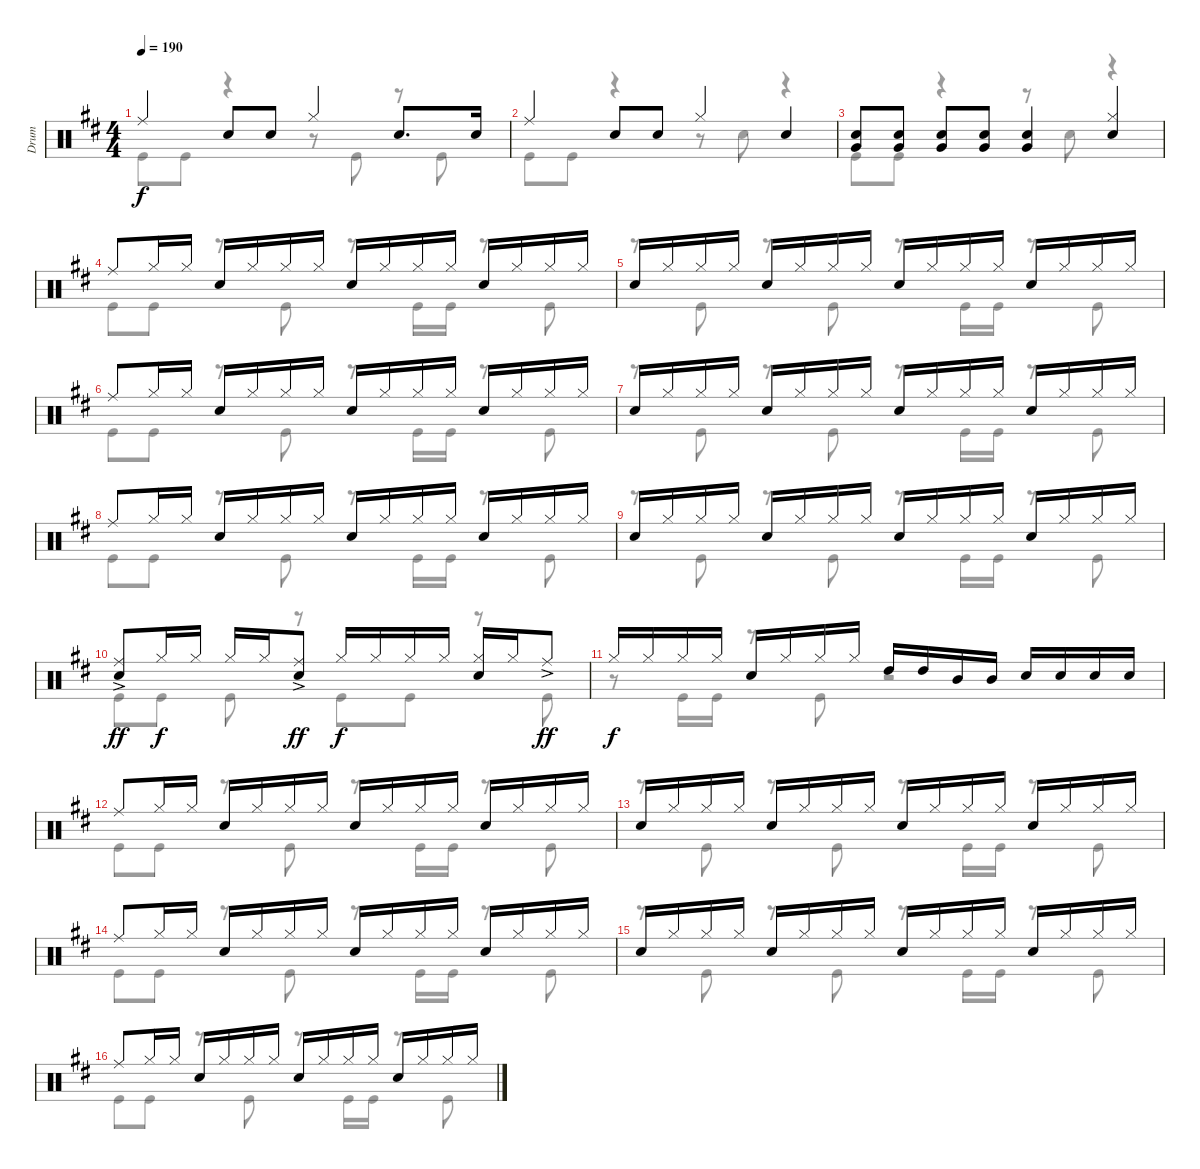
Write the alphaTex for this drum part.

\track ("Drum" "Drum") {instrument percussion}
\staff {score}
\articulation defaults
\voice
\ts (4 4)
\tempo 190
\clef neutral
\ks d "Ride (middle)".4{dy f} "Snare (hit) 2".8 "Snare (hit) 2".8 "Hi-Hat (closed)".4 "Snare (hit) 2".8{d} "Snare (hit) 2".16
|
"Ride (middle)".4 "Snare (hit) 2".8 "Snare (hit) 2".8 "Hi-Hat (closed)".4 "Snare (hit) 2".4 |
("Very Low Tom (hit)" "Snare (hit) 2").8 ("Very Low Tom (hit)" "Snare (hit) 2").8 ("Very Low Tom (hit)" "Snare (hit) 2").8 ("Very Low Tom (hit)" "Snare (hit) 2").8 ("Very Low Tom (hit)" "Snare (hit) 2").4 ("Hi-Hat (closed)" "Snare (hit) 2").4 |
"Ride (middle)".8 "Hi-Hat (closed)".16 "Hi-Hat (closed)".16 "Snare (hit) 2".16 "Hi-Hat (closed)".16 "Hi-Hat (closed)".16 "Hi-Hat (closed)".16 "Snare (hit) 2".16 "Hi-Hat (closed)".16 "Hi-Hat (closed)".16 "Hi-Hat (closed)".16 "Snare (hit) 2".16 "Hi-Hat (closed)".16 "Hi-Hat (closed)".16 "Hi-Hat (closed)".16 |
"Snare (hit) 2".16 "Hi-Hat (closed)".16 "Hi-Hat (closed)".16 "Hi-Hat (closed)".16 "Snare (hit) 2".16 "Hi-Hat (closed)".16 "Hi-Hat (closed)".16 "Hi-Hat (closed)".16 "Snare (hit) 2".16 "Hi-Hat (closed)".16 "Hi-Hat (closed)".16 "Hi-Hat (closed)".16 "Snare (hit) 2".16 "Hi-Hat (closed)".16 "Hi-Hat (closed)".16 "Hi-Hat (closed)".16 |
"Ride (middle)".8 "Hi-Hat (closed)".16 "Hi-Hat (closed)".16 "Snare (hit) 2".16 "Hi-Hat (closed)".16 "Hi-Hat (closed)".16 "Hi-Hat (closed)".16 "Snare (hit) 2".16 "Hi-Hat (closed)".16 "Hi-Hat (closed)".16 "Hi-Hat (closed)".16 "Snare (hit) 2".16 "Hi-Hat (closed)".16 "Hi-Hat (closed)".16 "Hi-Hat (closed)".16 |
"Snare (hit) 2".16 "Hi-Hat (closed)".16 "Hi-Hat (closed)".16 "Hi-Hat (closed)".16 "Snare (hit) 2".16 "Hi-Hat (closed)".16 "Hi-Hat (closed)".16 "Hi-Hat (closed)".16 "Snare (hit) 2".16 "Hi-Hat (closed)".16 "Hi-Hat (closed)".16 "Hi-Hat (closed)".16 "Snare (hit) 2".16 "Hi-Hat (closed)".16 "Hi-Hat (closed)".16 "Hi-Hat (closed)".16 |
"Ride (middle)".8 "Hi-Hat (closed)".16 "Hi-Hat (closed)".16 "Snare (hit) 2".16 "Hi-Hat (closed)".16 "Hi-Hat (closed)".16 "Hi-Hat (closed)".16 "Snare (hit) 2".16 "Hi-Hat (closed)".16 "Hi-Hat (closed)".16 "Hi-Hat (closed)".16 "Snare (hit) 2".16 "Hi-Hat (closed)".16 "Hi-Hat (closed)".16 "Hi-Hat (closed)".16 |
"Snare (hit) 2".16 "Hi-Hat (closed)".16 "Hi-Hat (closed)".16 "Hi-Hat (closed)".16 "Snare (hit) 2".16 "Hi-Hat (closed)".16 "Hi-Hat (closed)".16 "Hi-Hat (closed)".16 "Snare (hit) 2".16 "Hi-Hat (closed)".16 "Hi-Hat (closed)".16 "Hi-Hat (closed)".16 "Snare (hit) 2".16 "Hi-Hat (closed)".16 "Hi-Hat (closed)".16 "Hi-Hat (closed)".16 |
("Ride (middle)"{ac} "Snare (hit) 2").8{dy ff} "Hi-Hat (closed)".16{dy f} "Hi-Hat (closed)".16 "Hi-Hat (closed)".16 "Hi-Hat (closed)".16 ("Ride (middle)"{ac} "Snare (hit) 2").8{dy ff} "Hi-Hat (closed)".16{dy f} "Hi-Hat (closed)".16 "Hi-Hat (closed)".16 "Hi-Hat (closed)".16 ("Hi-Hat (closed)" "Snare (hit) 2").16 "Hi-Hat (closed)".16 "Ride (middle)"{ac}.8{dy ff} |
"Hi-Hat (closed)".16{dy f} "Hi-Hat (closed)".16 "Hi-Hat (closed)".16 "Hi-Hat (closed)".16 "Snare (hit) 2".16 "Hi-Hat (closed)".16 "Hi-Hat (closed)".16 "Hi-Hat (closed)".16 "High Tom (hit)".16 "High Tom (hit)".16 "Mid Tom (hit)".16 "Mid Tom (hit)".16 "Snare (hit) 2".16 "Snare (hit) 2".16 "Snare (hit) 2".16 "Snare (hit) 2".16 |
"Ride (middle)".8 "Hi-Hat (closed)".16 "Hi-Hat (closed)".16 "Snare (hit) 2".16 "Hi-Hat (closed)".16 "Hi-Hat (closed)".16 "Hi-Hat (closed)".16 "Snare (hit) 2".16 "Hi-Hat (closed)".16 "Hi-Hat (closed)".16 "Hi-Hat (closed)".16 "Snare (hit) 2".16 "Hi-Hat (closed)".16 "Hi-Hat (closed)".16 "Hi-Hat (closed)".16 |
"Snare (hit) 2".16 "Hi-Hat (closed)".16 "Hi-Hat (closed)".16 "Hi-Hat (closed)".16 "Snare (hit) 2".16 "Hi-Hat (closed)".16 "Hi-Hat (closed)".16 "Hi-Hat (closed)".16 "Snare (hit) 2".16 "Hi-Hat (closed)".16 "Hi-Hat (closed)".16 "Hi-Hat (closed)".16 "Snare (hit) 2".16 "Hi-Hat (closed)".16 "Hi-Hat (closed)".16 "Hi-Hat (closed)".16 |
"Ride (middle)".8 "Hi-Hat (closed)".16 "Hi-Hat (closed)".16 "Snare (hit) 2".16 "Hi-Hat (closed)".16 "Hi-Hat (closed)".16 "Hi-Hat (closed)".16 "Snare (hit) 2".16 "Hi-Hat (closed)".16 "Hi-Hat (closed)".16 "Hi-Hat (closed)".16 "Snare (hit) 2".16 "Hi-Hat (closed)".16 "Hi-Hat (closed)".16 "Hi-Hat (closed)".16 |
"Snare (hit) 2".16 "Hi-Hat (closed)".16 "Hi-Hat (closed)".16 "Hi-Hat (closed)".16 "Snare (hit) 2".16 "Hi-Hat (closed)".16 "Hi-Hat (closed)".16 "Hi-Hat (closed)".16 "Snare (hit) 2".16 "Hi-Hat (closed)".16 "Hi-Hat (closed)".16 "Hi-Hat (closed)".16 "Snare (hit) 2".16 "Hi-Hat (closed)".16 "Hi-Hat (closed)".16 "Hi-Hat (closed)".16 |
"Ride (middle)".8 "Hi-Hat (closed)".16 "Hi-Hat (closed)".16 "Snare (hit) 2".16 "Hi-Hat (closed)".16 "Hi-Hat (closed)".16 "Hi-Hat (closed)".16 "Snare (hit) 2".16 "Hi-Hat (closed)".16 "Hi-Hat (closed)".16 "Hi-Hat (closed)".16 "Snare (hit) 2".16 "Hi-Hat (closed)".16 "Hi-Hat (closed)".16 "Hi-Hat (closed)".16
\voice
\clef neutral
\ottava regular
\simile none
\ks d "Kick (hit)".8{dy f} "Kick (hit)".8
r.4 r.8 "Kick (hit)".8 r.8 "Kick (hit)".8 |
"Kick (hit)".8 "Kick (hit)".8 r.4 r.8 "Snare (hit) 2".8 r.4 |
"Kick (hit)".8 "Kick (hit)".8 r.4 r.8 "Snare (hit) 2".8 r.4 |
"Kick (hit)".8 "Kick (hit)".8 r.8 "Kick (hit)".8 r.8 "Kick (hit)".16 "Kick (hit)".16 r.8 "Kick (hit)".8 |
r.8 "Kick (hit)".8 r.8 "Kick (hit)".8 r.8 "Kick (hit)".16 "Kick (hit)".16 r.8 "Kick (hit)".8 |
"Kick (hit)".8 "Kick (hit)".8 r.8 "Kick (hit)".8 r.8 "Kick (hit)".16 "Kick (hit)".16 r.8 "Kick (hit)".8 |
r.8 "Kick (hit)".8 r.8 "Kick (hit)".8 r.8 "Kick (hit)".16 "Kick (hit)".16 r.8 "Kick (hit)".8 |
"Kick (hit)".8 "Kick (hit)".8 r.8 "Kick (hit)".8 r.8 "Kick (hit)".16 "Kick (hit)".16 r.8 "Kick (hit)".8 |
r.8 "Kick (hit)".8 r.8 "Kick (hit)".8 r.8 "Kick (hit)".16 "Kick (hit)".16 r.8 "Kick (hit)".8 |
"Kick (hit)".8 "Kick (hit)".8 "Kick (hit)".8 r.8 "Kick (hit)".8 "Kick (hit)".8 r.8 "Kick (hit)".8 |
r.8 "Kick (hit)".16 "Kick (hit)".16 r.8 "Kick (hit)".8 r.2 |
"Kick (hit)".8 "Kick (hit)".8 r.8 "Kick (hit)".8 r.8 "Kick (hit)".16 "Kick (hit)".16 r.8 "Kick (hit)".8 |
r.8 "Kick (hit)".8 r.8 "Kick (hit)".8 r.8 "Kick (hit)".16 "Kick (hit)".16 r.8 "Kick (hit)".8 |
"Kick (hit)".8 "Kick (hit)".8 r.8 "Kick (hit)".8 r.8 "Kick (hit)".16 "Kick (hit)".16 r.8 "Kick (hit)".8 |
r.8 "Kick (hit)".8 r.8 "Kick (hit)".8 r.8 "Kick (hit)".16 "Kick (hit)".16 r.8 "Kick (hit)".8 |
"Kick (hit)".8 "Kick (hit)".8 r.8 "Kick (hit)".8 r.8 "Kick (hit)".16 "Kick (hit)".16 r.8 "Kick (hit)".8
